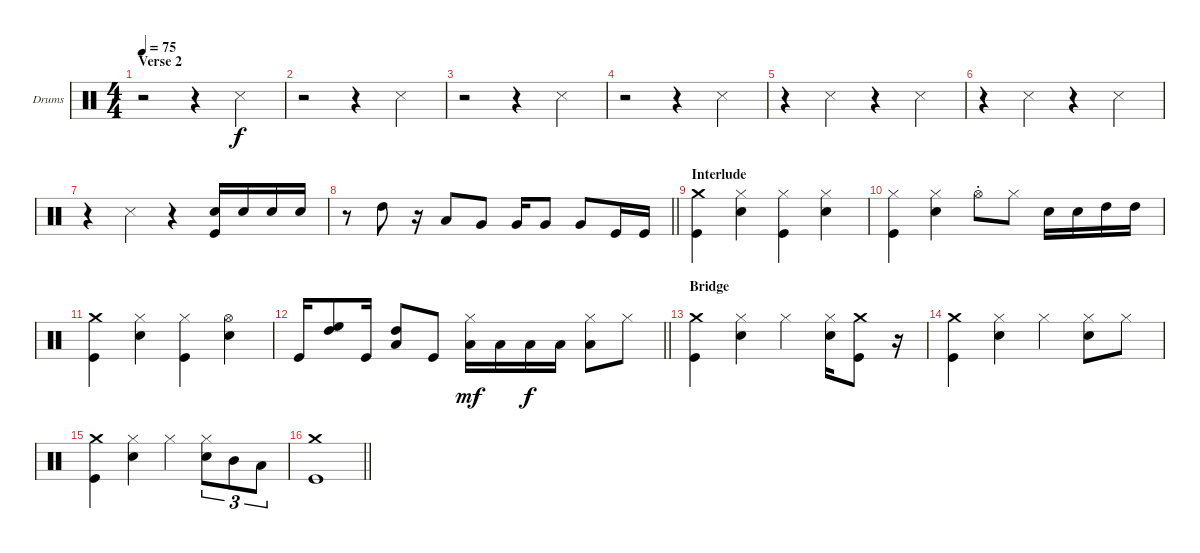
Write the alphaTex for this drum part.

\bracketExtendMode groupsimilarinstruments
\firstSystemTrackNameOrientation horizontal
\otherSystemsTrackNameOrientation horizontal
\track ("Drumkit" "Drums") {instrument percussion}
\staff {score}
\articulation defaults
\ts (4 4)
\section ("" "Verse 2")
\tempo 75
\clef neutral
\ks c
r.2{dy f} r.4 "Snare (side stick) 3".4 |
r.2 r.4 "Snare (side stick) 3".4 |
r.2 r.4 "Snare (side stick) 3".4 |
r.2 r.4 "Snare (side stick) 3".4 |
r.4 "Snare (side stick) 3".4 r.4 "Snare (side stick) 3".4 |
r.4 "Snare (side stick) 3".4 r.4 "Snare (side stick) 3".4 |
r.4 "Snare (side stick) 3".4 r.4 ("Snare (hit) 2" "Kick (hit)").16 "Snare (hit) 2".16 "Snare (hit) 2".16 "Snare (hit) 2".16 |
\barLineRight lightlight
r.8 "High Tom (hit)".8 r.16 "Low Tom (hit)".8 "Very Low Tom (hit)".8 "Very Low Tom (hit)".16 "Very Low Tom (hit)".8 "Very Low Tom (hit)".8 "Kick (hit)".16 "Kick (hit)".16 |
\section ("" "Interlude")
("Crash medium (hit)" "Kick (hit)").4 ("Hi-Hat (closed)" "Snare (hit) 2").4 ("Hi-Hat (closed)" "Kick (hit)").4 ("Hi-Hat (closed)" "Snare (hit) 2").4 |
("Hi-Hat (closed)" "Kick (hit)").4 ("Hi-Hat (closed)" "Snare (hit) 2").4 "Hi-Hat (open)"{st}.8 "Hi-Hat (closed)".8 "Snare (hit) 2".16 "Snare (hit) 2".16 "High Tom (hit)".16 "High Tom (hit)".16 |
("Crash medium (hit)" "Kick (hit)").4 ("Hi-Hat (closed)" "Snare (hit) 2").4 ("Hi-Hat (closed)" "Kick (hit)").4 ("Hi-Hat (open)" "Snare (hit) 2").4 |
\barLineRight lightlight "Kick (hit)".16
("High Tom (hit)" "High Floor Tom (hit)").8 "Kick (hit)".16 ("Low Tom (hit)" "High Tom (hit)").8 "Kick (hit)".8 ("Low Tom (hit)" "Hi-Hat (closed)").16{dy mf} "Low Tom (hit)".16 "Low Tom (hit)".16{dy f} "Low Tom (hit)".16 ("Low Tom (hit)" "Hi-Hat (closed)").8 "Hi-Hat (closed)".8 |
\section ("" "Bridge")
("Crash medium (hit)" "Kick (hit)").4 ("Hi-Hat (closed)" "Snare (hit) 2").4 "Hi-Hat (closed)".4 ("Hi-Hat (closed)" "Snare (hit) 2").16 ("Crash medium (hit)" "Kick (hit)").8 r.16 |
("Crash medium (hit)" "Kick (hit)").4 ("Hi-Hat (closed)" "Snare (hit) 2").4 "Hi-Hat (closed)".4 ("Hi-Hat (closed)" "Snare (hit) 2").8 "Hi-Hat (closed)".8 |
("Crash medium (hit)" "Kick (hit)").4 ("Hi-Hat (closed)" "Snare (hit) 2").4 "Hi-Hat (closed)".4 ("Hi-Hat (closed)" "Snare (hit) 2").8{tu (3 2)} "Mid Tom (hit)".8{tu (3 2)} "Low Tom (hit)".8{tu (3 2)} |
\barLineRight lightlight
("Crash medium (hit)" "Kick (hit)").1
